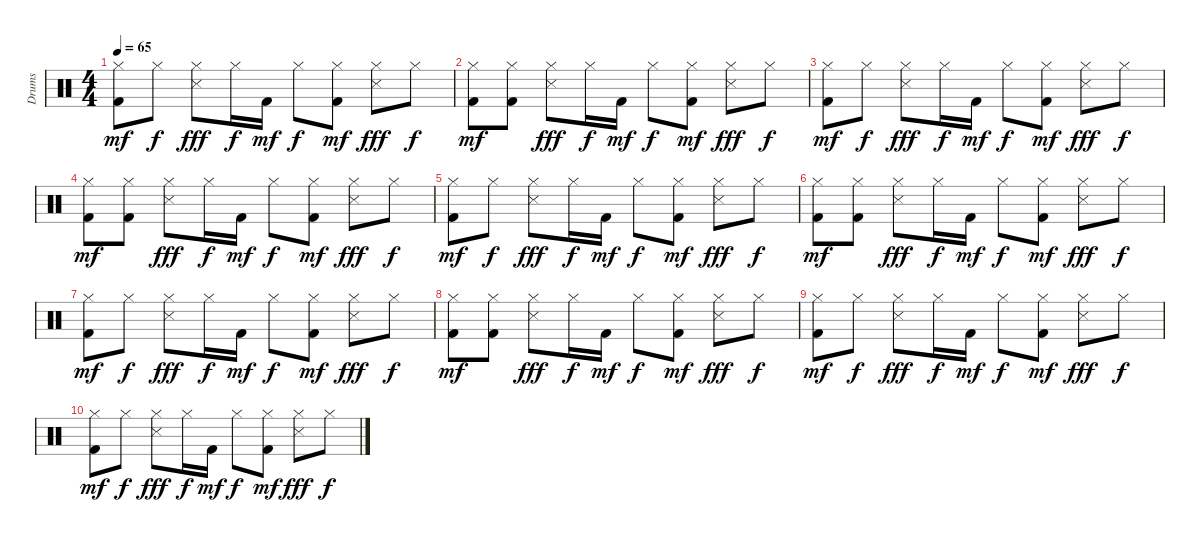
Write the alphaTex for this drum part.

\track ("Drums" "Drums") {instrument percussion}
\staff {score}
\articulation defaults
\ts (4 4)
\tempo 65
\clef neutral
\ks c
("Hi-Hat (closed)" "Kick (hit) 2").8{dy mf} "Hi-Hat (closed)".8{dy f} ("Hi-Hat (closed)" "Snare (side stick) 3").8{dy fff} "Hi-Hat (closed)".16{dy f} "Kick (hit) 2".16{dy mf} "Hi-Hat (closed)".8{dy f} ("Hi-Hat (closed)" "Kick (hit) 2").8{dy mf} ("Hi-Hat (closed)" "Snare (side stick) 3").8{dy fff} "Hi-Hat (closed)".8{dy f} |
("Hi-Hat (closed)" "Kick (hit) 2").8{dy mf} ("Hi-Hat (closed)" "Kick (hit) 2").8 ("Hi-Hat (closed)" "Snare (side stick) 3").8{dy fff} "Hi-Hat (closed)".16{dy f} "Kick (hit) 2".16{dy mf} "Hi-Hat (closed)".8{dy f} ("Hi-Hat (closed)" "Kick (hit) 2").8{dy mf} ("Hi-Hat (closed)" "Snare (side stick) 3").8{dy fff} "Hi-Hat (closed)".8{dy f} |
("Hi-Hat (closed)" "Kick (hit) 2").8{dy mf} "Hi-Hat (closed)".8{dy f} ("Hi-Hat (closed)" "Snare (side stick) 3").8{dy fff} "Hi-Hat (closed)".16{dy f} "Kick (hit) 2".16{dy mf} "Hi-Hat (closed)".8{dy f} ("Hi-Hat (closed)" "Kick (hit) 2").8{dy mf} ("Hi-Hat (closed)" "Snare (side stick) 3").8{dy fff} "Hi-Hat (closed)".8{dy f} |
("Hi-Hat (closed)" "Kick (hit) 2").8{dy mf} ("Hi-Hat (closed)" "Kick (hit) 2").8 ("Hi-Hat (closed)" "Snare (side stick) 3").8{dy fff} "Hi-Hat (closed)".16{dy f} "Kick (hit) 2".16{dy mf} "Hi-Hat (closed)".8{dy f} ("Hi-Hat (closed)" "Kick (hit) 2").8{dy mf} ("Hi-Hat (closed)" "Snare (side stick) 3").8{dy fff} "Hi-Hat (closed)".8{dy f} |
("Hi-Hat (closed)" "Kick (hit) 2").8{dy mf} "Hi-Hat (closed)".8{dy f} ("Hi-Hat (closed)" "Snare (side stick) 3").8{dy fff} "Hi-Hat (closed)".16{dy f} "Kick (hit) 2".16{dy mf} "Hi-Hat (closed)".8{dy f} ("Hi-Hat (closed)" "Kick (hit) 2").8{dy mf} ("Hi-Hat (closed)" "Snare (side stick) 3").8{dy fff} "Hi-Hat (closed)".8{dy f} |
("Hi-Hat (closed)" "Kick (hit) 2").8{dy mf} ("Hi-Hat (closed)" "Kick (hit) 2").8 ("Hi-Hat (closed)" "Snare (side stick) 3").8{dy fff} "Hi-Hat (closed)".16{dy f} "Kick (hit) 2".16{dy mf} "Hi-Hat (closed)".8{dy f} ("Hi-Hat (closed)" "Kick (hit) 2").8{dy mf} ("Hi-Hat (closed)" "Snare (side stick) 3").8{dy fff} "Hi-Hat (closed)".8{dy f} |
("Hi-Hat (closed)" "Kick (hit) 2").8{dy mf} "Hi-Hat (closed)".8{dy f} ("Hi-Hat (closed)" "Snare (side stick) 3").8{dy fff} "Hi-Hat (closed)".16{dy f} "Kick (hit) 2".16{dy mf} "Hi-Hat (closed)".8{dy f} ("Hi-Hat (closed)" "Kick (hit) 2").8{dy mf} ("Hi-Hat (closed)" "Snare (side stick) 3").8{dy fff} "Hi-Hat (closed)".8{dy f} |
("Hi-Hat (closed)" "Kick (hit) 2").8{dy mf} ("Hi-Hat (closed)" "Kick (hit) 2").8 ("Hi-Hat (closed)" "Snare (side stick) 3").8{dy fff} "Hi-Hat (closed)".16{dy f} "Kick (hit) 2".16{dy mf} "Hi-Hat (closed)".8{dy f} ("Hi-Hat (closed)" "Kick (hit) 2").8{dy mf} ("Hi-Hat (closed)" "Snare (side stick) 3").8{dy fff} "Hi-Hat (closed)".8{dy f} |
("Hi-Hat (closed)" "Kick (hit) 2").8{dy mf} "Hi-Hat (closed)".8{dy f} ("Hi-Hat (closed)" "Snare (side stick) 3").8{dy fff} "Hi-Hat (closed)".16{dy f} "Kick (hit) 2".16{dy mf} "Hi-Hat (closed)".8{dy f} ("Hi-Hat (closed)" "Kick (hit) 2").8{dy mf} ("Hi-Hat (closed)" "Snare (side stick) 3").8{dy fff} "Hi-Hat (closed)".8{dy f} |
("Hi-Hat (closed)" "Kick (hit) 2").8{dy mf} "Hi-Hat (closed)".8{dy f} ("Hi-Hat (closed)" "Snare (side stick) 3").8{dy fff} "Hi-Hat (closed)".16{dy f} "Kick (hit) 2".16{dy mf} "Hi-Hat (closed)".8{dy f} ("Hi-Hat (closed)" "Kick (hit) 2").8{dy mf} ("Hi-Hat (closed)" "Snare (side stick) 3").8{dy fff} "Hi-Hat (closed)".8{dy f}
